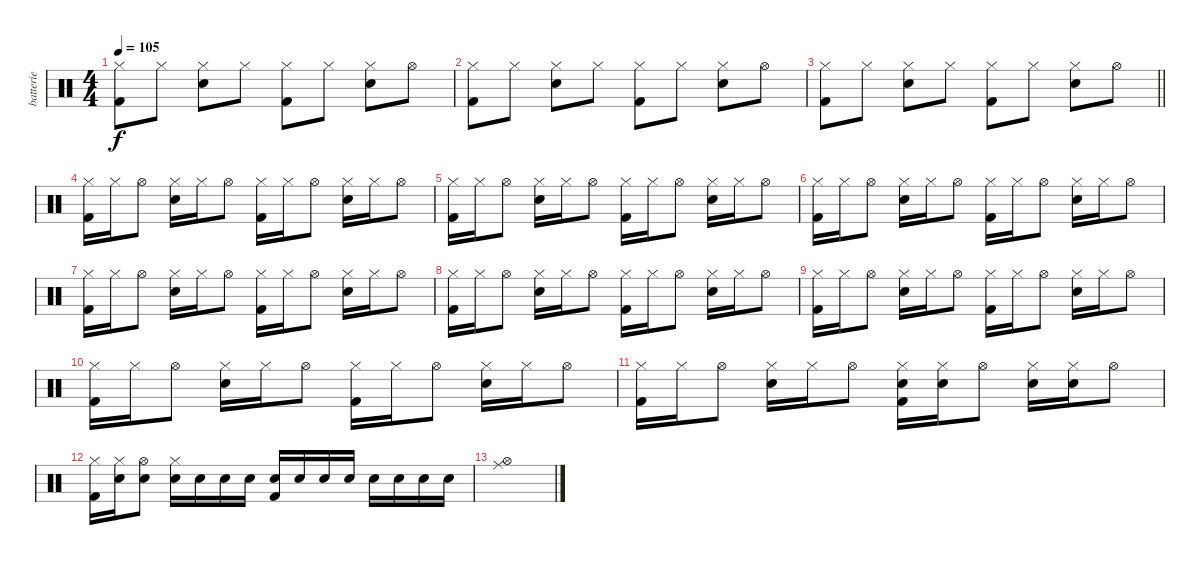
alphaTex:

\track ("batterie" "batterie") {instrument percussion}
\staff {score}
\articulation defaults
\ts (4 4)
\tempo 105
\clef neutral
\ks c
("Hi-Hat (closed)" "Kick (hit) 2").8{dy f} "Hi-Hat (closed)".8 ("Hi-Hat (closed)" "Snare (hit) 2").8 "Hi-Hat (closed)".8 ("Hi-Hat (closed)" "Kick (hit) 2").8 "Hi-Hat (closed)".8 ("Hi-Hat (closed)" "Snare (hit) 2").8 "Hi-Hat (open)".8 |
("Hi-Hat (closed)" "Kick (hit) 2").8 "Hi-Hat (closed)".8 ("Hi-Hat (closed)" "Snare (hit) 2").8 "Hi-Hat (closed)".8 ("Hi-Hat (closed)" "Kick (hit) 2").8 "Hi-Hat (closed)".8 ("Hi-Hat (closed)" "Snare (hit) 2").8 "Hi-Hat (open)".8 |
\barLineRight lightlight
("Hi-Hat (closed)" "Kick (hit) 2").8 "Hi-Hat (closed)".8 ("Hi-Hat (closed)" "Snare (hit) 2").8 "Hi-Hat (closed)".8 ("Hi-Hat (closed)" "Kick (hit) 2").8 "Hi-Hat (closed)".8 ("Hi-Hat (closed)" "Snare (hit) 2").8 "Hi-Hat (open)".8 |
("Hi-Hat (closed)" "Kick (hit) 2").16 "Hi-Hat (closed)".16 "Hi-Hat (open)".8 ("Hi-Hat (closed)" "Snare (hit) 2").16 "Hi-Hat (closed)".16 "Hi-Hat (open)".8 ("Hi-Hat (closed)" "Kick (hit) 2").16 "Hi-Hat (closed)".16 "Hi-Hat (open)".8 ("Hi-Hat (closed)" "Snare (hit) 2").16 "Hi-Hat (closed)".16 "Hi-Hat (open)".8 |
("Hi-Hat (closed)" "Kick (hit) 2").16 "Hi-Hat (closed)".16 "Hi-Hat (open)".8 ("Hi-Hat (closed)" "Snare (hit) 2").16 "Hi-Hat (closed)".16 "Hi-Hat (open)".8 ("Hi-Hat (closed)" "Kick (hit) 2").16 "Hi-Hat (closed)".16 "Hi-Hat (open)".8 ("Hi-Hat (closed)" "Snare (hit) 2").16 "Hi-Hat (closed)".16 "Hi-Hat (open)".8 |
("Hi-Hat (closed)" "Kick (hit) 2").16 "Hi-Hat (closed)".16 "Hi-Hat (open)".8 ("Hi-Hat (closed)" "Snare (hit) 2").16 "Hi-Hat (closed)".16 "Hi-Hat (open)".8 ("Hi-Hat (closed)" "Kick (hit) 2").16 "Hi-Hat (closed)".16 "Hi-Hat (open)".8 ("Hi-Hat (closed)" "Snare (hit) 2").16 "Hi-Hat (closed)".16 "Hi-Hat (open)".8 |
("Hi-Hat (closed)" "Kick (hit) 2").16 "Hi-Hat (closed)".16 "Hi-Hat (open)".8 ("Hi-Hat (closed)" "Snare (hit) 2").16 "Hi-Hat (closed)".16 "Hi-Hat (open)".8 ("Hi-Hat (closed)" "Kick (hit) 2").16 "Hi-Hat (closed)".16 "Hi-Hat (open)".8 ("Hi-Hat (closed)" "Snare (hit) 2").16 "Hi-Hat (closed)".16 "Hi-Hat (open)".8 |
("Hi-Hat (closed)" "Kick (hit) 2").16 "Hi-Hat (closed)".16 "Hi-Hat (open)".8 ("Hi-Hat (closed)" "Snare (hit) 2").16 "Hi-Hat (closed)".16 "Hi-Hat (open)".8 ("Hi-Hat (closed)" "Kick (hit) 2").16 "Hi-Hat (closed)".16 "Hi-Hat (open)".8 ("Hi-Hat (closed)" "Snare (hit) 2").16 "Hi-Hat (closed)".16 "Hi-Hat (open)".8 |
("Hi-Hat (closed)" "Kick (hit) 2").16 "Hi-Hat (closed)".16 "Hi-Hat (open)".8 ("Hi-Hat (closed)" "Snare (hit) 2").16 "Hi-Hat (closed)".16 "Hi-Hat (open)".8 ("Hi-Hat (closed)" "Kick (hit) 2").16 "Hi-Hat (closed)".16 "Hi-Hat (open)".8 ("Hi-Hat (closed)" "Snare (hit) 2").16 "Hi-Hat (closed)".16 "Hi-Hat (open)".8 |
("Hi-Hat (closed)" "Kick (hit) 2").16 "Hi-Hat (closed)".16 "Hi-Hat (open)".8 ("Hi-Hat (closed)" "Snare (hit) 2").16 "Hi-Hat (closed)".16 "Hi-Hat (open)".8 ("Hi-Hat (closed)" "Kick (hit) 2").16 "Hi-Hat (closed)".16 "Hi-Hat (open)".8 ("Hi-Hat (closed)" "Snare (hit) 2").16 "Hi-Hat (closed)".16 "Hi-Hat (open)".8 |
("Hi-Hat (closed)" "Kick (hit) 2").16 "Hi-Hat (closed)".16 "Hi-Hat (open)".8 ("Hi-Hat (closed)" "Snare (hit) 2").16 "Hi-Hat (closed)".16 "Hi-Hat (open)".8 ("Hi-Hat (closed)" "Snare (hit) 2" "Kick (hit) 2").16 ("Hi-Hat (closed)" "Snare (hit) 2").16 "Hi-Hat (open)".8 ("Hi-Hat (closed)" "Snare (hit) 2").16 ("Hi-Hat (closed)" "Snare (hit) 2").16 "Hi-Hat (open)".8 |
("Hi-Hat (closed)" "Kick (hit) 2").16 ("Hi-Hat (closed)" "Snare (hit) 2").16 ("Hi-Hat (open)" "Snare (hit) 2").8 ("Hi-Hat (closed)" "Snare (hit) 2").16 "Snare (hit) 2".16 "Snare (hit) 2".16 "Snare (hit) 2".16 ("Snare (hit) 2" "Kick (hit) 2").16 "Snare (hit) 2".16 "Snare (hit) 2".16 "Snare (hit) 2".16 "Snare (hit) 2".16 "Snare (hit) 2".16 "Snare (hit) 2".16 "Snare (hit) 2".16 |
("Hi-Hat (open)" "Ride (middle)").1
